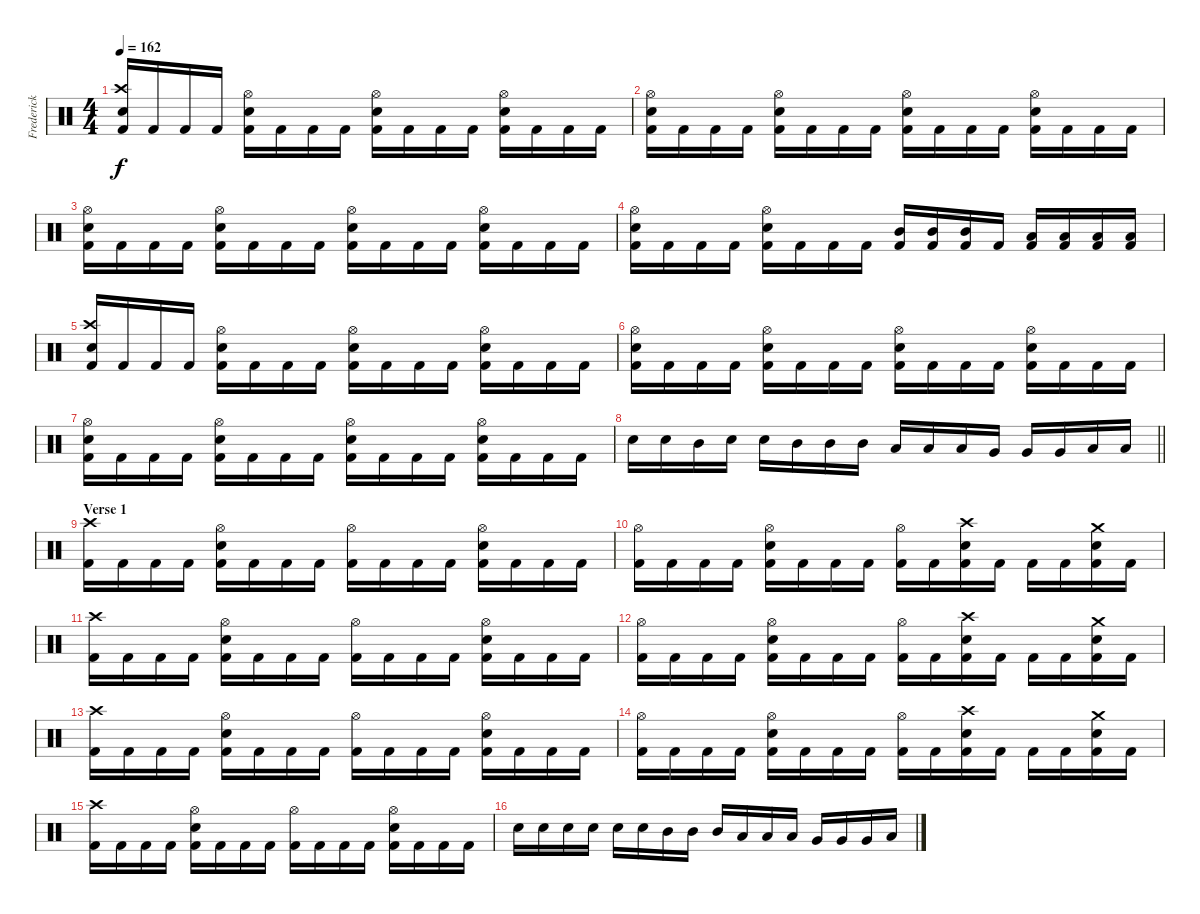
\track ("Frederick Ehmke" "Frederick ") {instrument percussion}
\staff {score}
\articulation defaults
\ts (4 4)
\tempo 162
\clef neutral
\ks c
("Electric Snare (hit)" "Crash high (hit)" "Kick (hit) 2").16{dy f} "Kick (hit) 2".16 "Kick (hit) 2".16 "Kick (hit) 2".16 ("Electric Snare (hit)" "Hi-Hat (open)" "Kick (hit) 2").16 "Kick (hit) 2".16 "Kick (hit) 2".16 "Kick (hit) 2".16 ("Electric Snare (hit)" "Hi-Hat (open)" "Kick (hit) 2").16 "Kick (hit) 2".16 "Kick (hit) 2".16 "Kick (hit) 2".16 ("Electric Snare (hit)" "Hi-Hat (open)" "Kick (hit) 2").16 "Kick (hit) 2".16 "Kick (hit) 2".16 "Kick (hit) 2".16 |
("Electric Snare (hit)" "Hi-Hat (open)" "Kick (hit) 2").16 "Kick (hit) 2".16 "Kick (hit) 2".16 "Kick (hit) 2".16 ("Electric Snare (hit)" "Hi-Hat (open)" "Kick (hit) 2").16 "Kick (hit) 2".16 "Kick (hit) 2".16 "Kick (hit) 2".16 ("Electric Snare (hit)" "Hi-Hat (open)" "Kick (hit) 2").16 "Kick (hit) 2".16 "Kick (hit) 2".16 "Kick (hit) 2".16 ("Electric Snare (hit)" "Hi-Hat (open)" "Kick (hit) 2").16 "Kick (hit) 2".16 "Kick (hit) 2".16 "Kick (hit) 2".16 |
("Electric Snare (hit)" "Hi-Hat (open)" "Kick (hit) 2").16 "Kick (hit) 2".16 "Kick (hit) 2".16 "Kick (hit) 2".16 ("Electric Snare (hit)" "Hi-Hat (open)" "Kick (hit) 2").16 "Kick (hit) 2".16 "Kick (hit) 2".16 "Kick (hit) 2".16 ("Electric Snare (hit)" "Hi-Hat (open)" "Kick (hit) 2").16 "Kick (hit) 2".16 "Kick (hit) 2".16 "Kick (hit) 2".16 ("Electric Snare (hit)" "Hi-Hat (open)" "Kick (hit) 2").16 "Kick (hit) 2".16 "Kick (hit) 2".16 "Kick (hit) 2".16 |
("Electric Snare (hit)" "Hi-Hat (open)" "Kick (hit) 2").16 "Kick (hit) 2".16 "Kick (hit) 2".16 "Kick (hit) 2".16 ("Electric Snare (hit)" "Hi-Hat (open)" "Kick (hit) 2").16 "Kick (hit) 2".16 "Kick (hit) 2".16 "Kick (hit) 2".16 ("Mid Tom (hit)" "Kick (hit) 2").16 ("Mid Tom (hit)" "Kick (hit) 2").16 ("Mid Tom (hit)" "Kick (hit) 2").16 "Kick (hit) 2".16 ("Low Tom (hit)" "Kick (hit) 2").16 ("Low Tom (hit)" "Kick (hit) 2").16 ("Low Tom (hit)" "Kick (hit) 2").16 ("Low Tom (hit)" "Kick (hit) 2").16 |
("Electric Snare (hit)" "Crash high (hit)" "Kick (hit) 2").16 "Kick (hit) 2".16 "Kick (hit) 2".16 "Kick (hit) 2".16 ("Electric Snare (hit)" "Hi-Hat (open)" "Kick (hit) 2").16 "Kick (hit) 2".16 "Kick (hit) 2".16 "Kick (hit) 2".16 ("Electric Snare (hit)" "Hi-Hat (open)" "Kick (hit) 2").16 "Kick (hit) 2".16 "Kick (hit) 2".16 "Kick (hit) 2".16 ("Electric Snare (hit)" "Hi-Hat (open)" "Kick (hit) 2").16 "Kick (hit) 2".16 "Kick (hit) 2".16 "Kick (hit) 2".16 |
("Electric Snare (hit)" "Hi-Hat (open)" "Kick (hit) 2").16 "Kick (hit) 2".16 "Kick (hit) 2".16 "Kick (hit) 2".16 ("Electric Snare (hit)" "Hi-Hat (open)" "Kick (hit) 2").16 "Kick (hit) 2".16 "Kick (hit) 2".16 "Kick (hit) 2".16 ("Electric Snare (hit)" "Hi-Hat (open)" "Kick (hit) 2").16 "Kick (hit) 2".16 "Kick (hit) 2".16 "Kick (hit) 2".16 ("Electric Snare (hit)" "Hi-Hat (open)" "Kick (hit) 2").16 "Kick (hit) 2".16 "Kick (hit) 2".16 "Kick (hit) 2".16 |
("Electric Snare (hit)" "Hi-Hat (open)" "Kick (hit) 2").16 "Kick (hit) 2".16 "Kick (hit) 2".16 "Kick (hit) 2".16 ("Electric Snare (hit)" "Hi-Hat (open)" "Kick (hit) 2").16 "Kick (hit) 2".16 "Kick (hit) 2".16 "Kick (hit) 2".16 ("Electric Snare (hit)" "Hi-Hat (open)" "Kick (hit) 2").16 "Kick (hit) 2".16 "Kick (hit) 2".16 "Kick (hit) 2".16 ("Electric Snare (hit)" "Hi-Hat (open)" "Kick (hit) 2").16 "Kick (hit) 2".16 "Kick (hit) 2".16 "Kick (hit) 2".16 |
\barLineRight lightlight "Electric Snare (hit)".16 "Electric Snare (hit)".16 "Mid Tom (hit)".16 "Electric Snare (hit)".16 "Electric Snare (hit)".16 "Mid Tom (hit)".16 "Mid Tom (hit)".16 "Mid Tom (hit)".16 "Low Tom (hit)".16 "Low Tom (hit)".16 "Low Tom (hit)".16 "Very Low Tom (hit)".16 "Very Low Tom (hit)".16 "Very Low Tom (hit)".16 "Low Floor Tom (hit)".16 "Low Floor Tom (hit)".16
|
\section ("" "Verse 1")
("Crash high (hit)" "Kick (hit) 2").16 "Kick (hit) 2".16 "Kick (hit) 2".16 "Kick (hit) 2".16 ("Hi-Hat (open)" "Electric Snare (hit)" "Kick (hit) 2").16 "Kick (hit) 2".16 "Kick (hit) 2".16 "Kick (hit) 2".16 ("Hi-Hat (open)" "Kick (hit) 2").16 "Kick (hit) 2".16 "Kick (hit) 2".16 "Kick (hit) 2".16 ("Hi-Hat (open)" "Electric Snare (hit)" "Kick (hit) 2").16 "Kick (hit) 2".16 "Kick (hit) 2".16 "Kick (hit) 2".16 |
("Hi-Hat (open)" "Kick (hit) 2").16 "Kick (hit) 2".16 "Kick (hit) 2".16 "Kick (hit) 2".16 ("Hi-Hat (open)" "Electric Snare (hit)" "Kick (hit) 2").16 "Kick (hit) 2".16 "Kick (hit) 2".16 "Kick (hit) 2".16 ("Hi-Hat (open)" "Kick (hit) 2").16 "Kick (hit) 2".16 ("Crash high (hit)" "Electric Snare (hit)" "Kick (hit) 2").16 "Kick (hit) 2".16 "Kick (hit) 2".16 "Kick (hit) 2".16 ("Crash medium (hit)" "Electric Snare (hit)" "Kick (hit) 2").16 "Kick (hit) 2".16 |
("Crash high (hit)" "Kick (hit) 2").16 "Kick (hit) 2".16 "Kick (hit) 2".16 "Kick (hit) 2".16 ("Hi-Hat (open)" "Electric Snare (hit)" "Kick (hit) 2").16 "Kick (hit) 2".16 "Kick (hit) 2".16 "Kick (hit) 2".16 ("Hi-Hat (open)" "Kick (hit) 2").16 "Kick (hit) 2".16 "Kick (hit) 2".16 "Kick (hit) 2".16 ("Hi-Hat (open)" "Electric Snare (hit)" "Kick (hit) 2").16 "Kick (hit) 2".16 "Kick (hit) 2".16 "Kick (hit) 2".16 |
("Hi-Hat (open)" "Kick (hit) 2").16 "Kick (hit) 2".16 "Kick (hit) 2".16 "Kick (hit) 2".16 ("Hi-Hat (open)" "Electric Snare (hit)" "Kick (hit) 2").16 "Kick (hit) 2".16 "Kick (hit) 2".16 "Kick (hit) 2".16 ("Hi-Hat (open)" "Kick (hit) 2").16 "Kick (hit) 2".16 ("Crash high (hit)" "Electric Snare (hit)" "Kick (hit) 2").16 "Kick (hit) 2".16 "Kick (hit) 2".16 "Kick (hit) 2".16 ("Crash medium (hit)" "Electric Snare (hit)" "Kick (hit) 2").16 "Kick (hit) 2".16 |
("Crash high (hit)" "Kick (hit) 2").16 "Kick (hit) 2".16 "Kick (hit) 2".16 "Kick (hit) 2".16 ("Hi-Hat (open)" "Electric Snare (hit)" "Kick (hit) 2").16 "Kick (hit) 2".16 "Kick (hit) 2".16 "Kick (hit) 2".16 ("Hi-Hat (open)" "Kick (hit) 2").16 "Kick (hit) 2".16 "Kick (hit) 2".16 "Kick (hit) 2".16 ("Hi-Hat (open)" "Electric Snare (hit)" "Kick (hit) 2").16 "Kick (hit) 2".16 "Kick (hit) 2".16 "Kick (hit) 2".16 |
("Hi-Hat (open)" "Kick (hit) 2").16 "Kick (hit) 2".16 "Kick (hit) 2".16 "Kick (hit) 2".16 ("Hi-Hat (open)" "Electric Snare (hit)" "Kick (hit) 2").16 "Kick (hit) 2".16 "Kick (hit) 2".16 "Kick (hit) 2".16 ("Hi-Hat (open)" "Kick (hit) 2").16 "Kick (hit) 2".16 ("Crash high (hit)" "Electric Snare (hit)" "Kick (hit) 2").16 "Kick (hit) 2".16 "Kick (hit) 2".16 "Kick (hit) 2".16 ("Crash medium (hit)" "Electric Snare (hit)" "Kick (hit) 2").16 "Kick (hit) 2".16 |
("Crash high (hit)" "Kick (hit) 2").16 "Kick (hit) 2".16 "Kick (hit) 2".16 "Kick (hit) 2".16 ("Hi-Hat (open)" "Electric Snare (hit)" "Kick (hit) 2").16 "Kick (hit) 2".16 "Kick (hit) 2".16 "Kick (hit) 2".16 ("Hi-Hat (open)" "Kick (hit) 2").16 "Kick (hit) 2".16 "Kick (hit) 2".16 "Kick (hit) 2".16 ("Hi-Hat (open)" "Electric Snare (hit)" "Kick (hit) 2").16 "Kick (hit) 2".16 "Kick (hit) 2".16 "Kick (hit) 2".16 |
"Electric Snare (hit)".16 "Electric Snare (hit)".16 "Electric Snare (hit)".16 "Electric Snare (hit)".16 "Electric Snare (hit)".16 "Electric Snare (hit)".16 "Mid Tom (hit)".16 "Mid Tom (hit)".16 "Mid Tom (hit)".16 "Low Tom (hit)".16 "Low Tom (hit)".16 "Low Tom (hit)".16 "Very Low Tom (hit)".16 "Very Low Tom (hit)".16 "Very Low Tom (hit)".16 "Low Floor Tom (hit)".16
